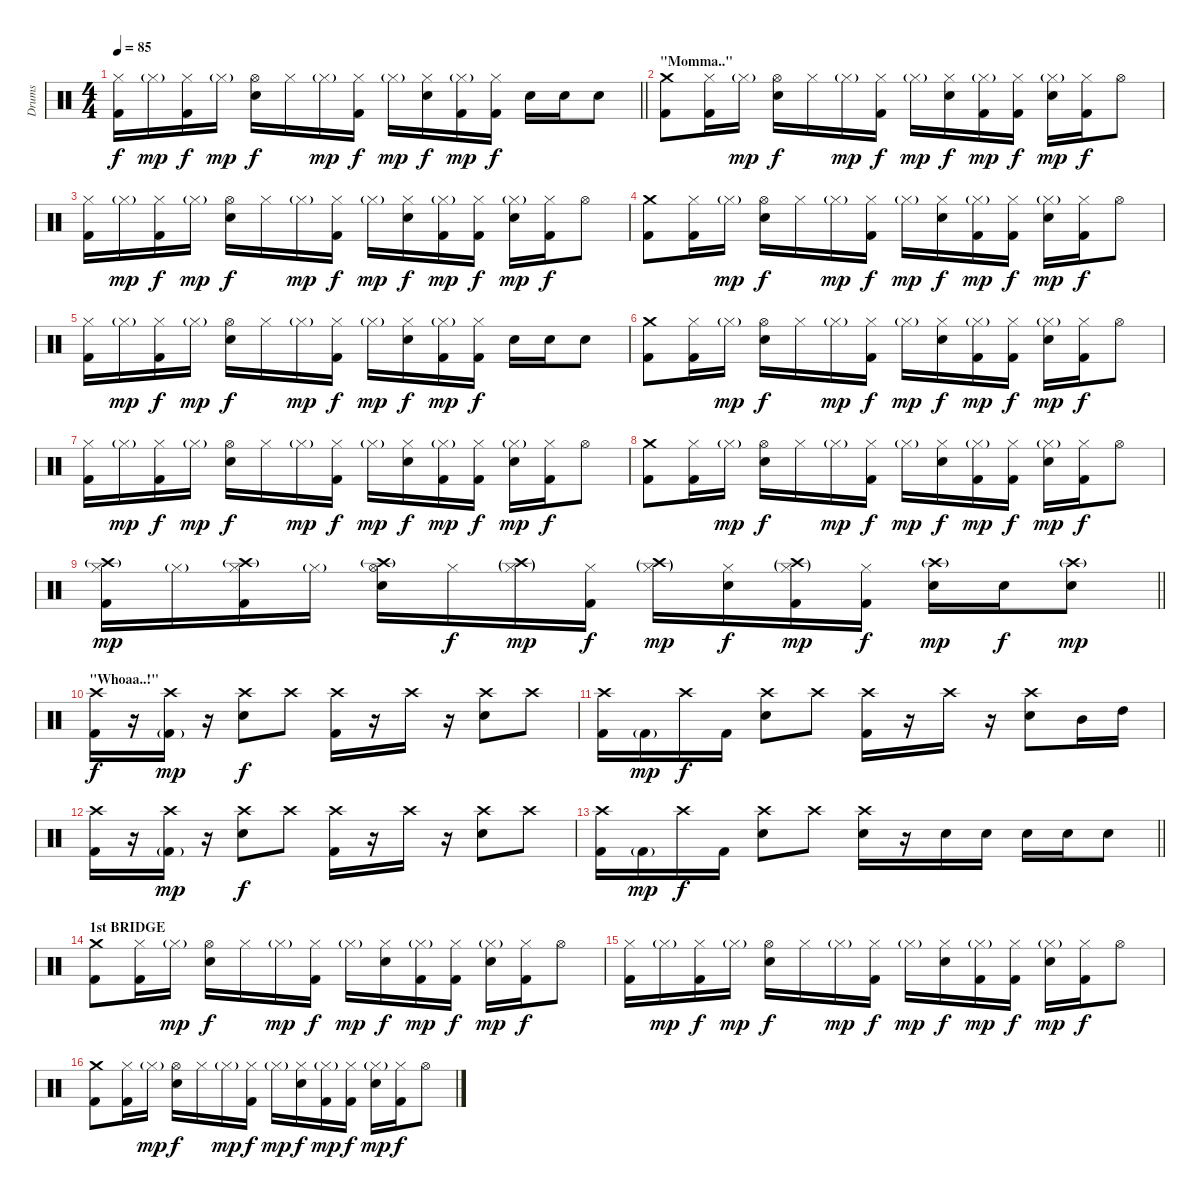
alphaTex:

\track ("Drums" "Drums") {instrument percussion}
\staff {score}
\articulation defaults
\ts (4 4)
\tempo 85
\clef neutral
\barLineRight lightlight
\ks c
("Hi-Hat (closed)" "Kick (hit) 2").16{dy f} "Hi-Hat (closed)"{g}.16{dy mp} ("Hi-Hat (closed)" "Kick (hit) 2").16{dy f} "Hi-Hat (closed)"{g}.16{dy mp} ("Hi-Hat (open)" "Electric Snare (hit)").16{dy f} "Hi-Hat (closed)".16 "Hi-Hat (closed)"{g}.16{dy mp} ("Hi-Hat (closed)" "Kick (hit) 2").16{dy f} "Hi-Hat (closed)"{g}.16{dy mp} ("Hi-Hat (closed)" "Electric Snare (hit)").16{dy f} ("Hi-Hat (closed)"{g} "Kick (hit) 2").16{dy mp} ("Hi-Hat (closed)" "Kick (hit) 2").16{dy f} "Electric Snare (hit)".16 "Electric Snare (hit)".16 "Electric Snare (hit)".8 |
\section ("" "\"Momma..\"")
("Crash medium (hit)" "Kick (hit) 2").8 ("Hi-Hat (closed)" "Kick (hit) 2").16 "Hi-Hat (closed)"{g}.16{dy mp} ("Hi-Hat (open)" "Electric Snare (hit)").16{dy f} "Hi-Hat (closed)".16 "Hi-Hat (closed)"{g}.16{dy mp} ("Hi-Hat (closed)" "Kick (hit) 2").16{dy f} "Hi-Hat (closed)"{g}.16{dy mp} ("Hi-Hat (closed)" "Electric Snare (hit)").16{dy f} ("Hi-Hat (closed)"{g} "Kick (hit) 2").16{dy mp} ("Hi-Hat (closed)" "Kick (hit) 2").16{dy f} ("Hi-Hat (closed)"{g} "Electric Snare (hit)").16{dy mp} ("Hi-Hat (closed)" "Kick (hit) 2").16{dy f} "Hi-Hat (open)".8 |
("Hi-Hat (closed)" "Kick (hit) 2").16 "Hi-Hat (closed)"{g}.16{dy mp} ("Hi-Hat (closed)" "Kick (hit) 2").16{dy f} "Hi-Hat (closed)"{g}.16{dy mp} ("Hi-Hat (open)" "Electric Snare (hit)").16{dy f} "Hi-Hat (closed)".16 "Hi-Hat (closed)"{g}.16{dy mp} ("Hi-Hat (closed)" "Kick (hit) 2").16{dy f} "Hi-Hat (closed)"{g}.16{dy mp} ("Hi-Hat (closed)" "Electric Snare (hit)").16{dy f} ("Hi-Hat (closed)"{g} "Kick (hit) 2").16{dy mp} ("Hi-Hat (closed)" "Kick (hit) 2").16{dy f} ("Hi-Hat (closed)"{g} "Electric Snare (hit)").16{dy mp} ("Hi-Hat (closed)" "Kick (hit) 2").16{dy f} "Hi-Hat (open)".8 |
("Crash medium (hit)" "Kick (hit) 2").8 ("Hi-Hat (closed)" "Kick (hit) 2").16 "Hi-Hat (closed)"{g}.16{dy mp} ("Hi-Hat (open)" "Electric Snare (hit)").16{dy f} "Hi-Hat (closed)".16 "Hi-Hat (closed)"{g}.16{dy mp} ("Hi-Hat (closed)" "Kick (hit) 2").16{dy f} "Hi-Hat (closed)"{g}.16{dy mp} ("Hi-Hat (closed)" "Electric Snare (hit)").16{dy f} ("Hi-Hat (closed)"{g} "Kick (hit) 2").16{dy mp} ("Hi-Hat (closed)" "Kick (hit) 2").16{dy f} ("Hi-Hat (closed)"{g} "Electric Snare (hit)").16{dy mp} ("Hi-Hat (closed)" "Kick (hit) 2").16{dy f} "Hi-Hat (open)".8 |
("Hi-Hat (closed)" "Kick (hit) 2").16 "Hi-Hat (closed)"{g}.16{dy mp} ("Hi-Hat (closed)" "Kick (hit) 2").16{dy f} "Hi-Hat (closed)"{g}.16{dy mp} ("Hi-Hat (open)" "Electric Snare (hit)").16{dy f} "Hi-Hat (closed)".16 "Hi-Hat (closed)"{g}.16{dy mp} ("Hi-Hat (closed)" "Kick (hit) 2").16{dy f} "Hi-Hat (closed)"{g}.16{dy mp} ("Hi-Hat (closed)" "Electric Snare (hit)").16{dy f} ("Hi-Hat (closed)"{g} "Kick (hit) 2").16{dy mp} ("Hi-Hat (closed)" "Kick (hit) 2").16{dy f} "Electric Snare (hit)".16 "Electric Snare (hit)".16 "Electric Snare (hit)".8 |
("Crash medium (hit)" "Kick (hit) 2").8 ("Hi-Hat (closed)" "Kick (hit) 2").16 "Hi-Hat (closed)"{g}.16{dy mp} ("Hi-Hat (open)" "Electric Snare (hit)").16{dy f} "Hi-Hat (closed)".16 "Hi-Hat (closed)"{g}.16{dy mp} ("Hi-Hat (closed)" "Kick (hit) 2").16{dy f} "Hi-Hat (closed)"{g}.16{dy mp} ("Hi-Hat (closed)" "Electric Snare (hit)").16{dy f} ("Hi-Hat (closed)"{g} "Kick (hit) 2").16{dy mp} ("Hi-Hat (closed)" "Kick (hit) 2").16{dy f} ("Hi-Hat (closed)"{g} "Electric Snare (hit)").16{dy mp} ("Hi-Hat (closed)" "Kick (hit) 2").16{dy f} "Hi-Hat (open)".8 |
("Hi-Hat (closed)" "Kick (hit) 2").16 "Hi-Hat (closed)"{g}.16{dy mp} ("Hi-Hat (closed)" "Kick (hit) 2").16{dy f} "Hi-Hat (closed)"{g}.16{dy mp} ("Hi-Hat (open)" "Electric Snare (hit)").16{dy f} "Hi-Hat (closed)".16 "Hi-Hat (closed)"{g}.16{dy mp} ("Hi-Hat (closed)" "Kick (hit) 2").16{dy f} "Hi-Hat (closed)"{g}.16{dy mp} ("Hi-Hat (closed)" "Electric Snare (hit)").16{dy f} ("Hi-Hat (closed)"{g} "Kick (hit) 2").16{dy mp} ("Hi-Hat (closed)" "Kick (hit) 2").16{dy f} ("Hi-Hat (closed)"{g} "Electric Snare (hit)").16{dy mp} ("Hi-Hat (closed)" "Kick (hit) 2").16{dy f} "Hi-Hat (open)".8 |
("Crash medium (hit)" "Kick (hit) 2").8 ("Hi-Hat (closed)" "Kick (hit) 2").16 "Hi-Hat (closed)"{g}.16{dy mp} ("Hi-Hat (open)" "Electric Snare (hit)").16{dy f} "Hi-Hat (closed)".16 "Hi-Hat (closed)"{g}.16{dy mp} ("Hi-Hat (closed)" "Kick (hit) 2").16{dy f} "Hi-Hat (closed)"{g}.16{dy mp} ("Hi-Hat (closed)" "Electric Snare (hit)").16{dy f} ("Hi-Hat (closed)"{g} "Kick (hit) 2").16{dy mp} ("Hi-Hat (closed)" "Kick (hit) 2").16{dy f} ("Hi-Hat (closed)"{g} "Electric Snare (hit)").16{dy mp} ("Hi-Hat (closed)" "Kick (hit) 2").16{dy f} "Hi-Hat (open)".8 |
\barLineRight lightlight
("Crash high (hit)"{g} "Hi-Hat (closed)" "Kick (hit) 2").16{dy mp} "Hi-Hat (closed)"{g}.16 ("Crash high (hit)"{g} "Hi-Hat (closed)" "Kick (hit) 2").16 "Hi-Hat (closed)"{g}.16 ("Crash high (hit)"{g} "Hi-Hat (open)" "Electric Snare (hit)").16 "Hi-Hat (closed)".16{dy f} ("Crash high (hit)"{g} "Hi-Hat (closed)"{g}).16{dy mp} ("Hi-Hat (closed)" "Kick (hit) 2").16{dy f} ("Crash high (hit)"{g} "Hi-Hat (closed)"{g}).16{dy mp} ("Hi-Hat (closed)" "Electric Snare (hit)").16{dy f} ("Crash high (hit)"{g} "Hi-Hat (closed)"{g} "Kick (hit) 2").16{dy mp} ("Hi-Hat (closed)" "Kick (hit) 2").16{dy f} ("Crash high (hit)"{g} "Electric Snare (hit)").16{dy mp} "Electric Snare (hit)".16{dy f} ("Crash high (hit)"{g} "Electric Snare (hit)").8{dy mp} |
\section ("" "\"Whoaa..!\"")
("Crash high (hit)" "Kick (hit) 2").16{dy f} r.16 ("Crash high (hit)" "Kick (hit) 2"{g}).16{dy mp} r.16 ("Crash high (hit)" "Electric Snare (hit)").8{dy f} "Crash high (hit)".8 ("Crash high (hit)" "Kick (hit) 2").16 r.16 "Crash high (hit)".16 r.16 ("Crash high (hit)" "Electric Snare (hit)").8 "Crash high (hit)".8 |
("Crash high (hit)" "Kick (hit) 2").16 "Kick (hit) 2"{g}.16{dy mp} "Crash high (hit)".16{dy f} "Kick (hit) 2".16 ("Crash high (hit)" "Electric Snare (hit)").8 "Crash high (hit)".8 ("Crash high (hit)" "Kick (hit) 2").16 r.16 "Crash high (hit)".16 r.16 ("Crash high (hit)" "Electric Snare (hit)").8 "Mid Tom (hit)".16 "High Tom (hit)".16 |
("Crash high (hit)" "Kick (hit) 2").16 r.16 ("Crash high (hit)" "Kick (hit) 2"{g}).16{dy mp} r.16 ("Crash high (hit)" "Electric Snare (hit)").8{dy f} "Crash high (hit)".8 ("Crash high (hit)" "Kick (hit) 2").16 r.16 "Crash high (hit)".16 r.16 ("Crash high (hit)" "Electric Snare (hit)").8 "Crash high (hit)".8 |
\barLineRight lightlight
("Crash high (hit)" "Kick (hit) 2").16 "Kick (hit) 2"{g}.16{dy mp} "Crash high (hit)".16{dy f} "Kick (hit) 2".16 ("Crash high (hit)" "Electric Snare (hit)").8 "Crash high (hit)".8 ("Crash high (hit)" "Electric Snare (hit)").16 r.16 "Electric Snare (hit)".16 "Electric Snare (hit)".16 "Electric Snare (hit)".16 "Electric Snare (hit)".16 "Electric Snare (hit)".8 |
\section ("" "1st BRIDGE")
("Crash medium (hit)" "Kick (hit) 2").8 ("Hi-Hat (closed)" "Kick (hit) 2").16 "Hi-Hat (closed)"{g}.16{dy mp} ("Hi-Hat (open)" "Electric Snare (hit)").16{dy f} "Hi-Hat (closed)".16 "Hi-Hat (closed)"{g}.16{dy mp} ("Hi-Hat (closed)" "Kick (hit) 2").16{dy f} "Hi-Hat (closed)"{g}.16{dy mp} ("Hi-Hat (closed)" "Electric Snare (hit)").16{dy f} ("Hi-Hat (closed)"{g} "Kick (hit) 2").16{dy mp} ("Hi-Hat (closed)" "Kick (hit) 2").16{dy f} ("Hi-Hat (closed)"{g} "Electric Snare (hit)").16{dy mp} ("Hi-Hat (closed)" "Kick (hit) 2").16{dy f} "Hi-Hat (open)".8 |
("Hi-Hat (closed)" "Kick (hit) 2").16 "Hi-Hat (closed)"{g}.16{dy mp} ("Hi-Hat (closed)" "Kick (hit) 2").16{dy f} "Hi-Hat (closed)"{g}.16{dy mp} ("Hi-Hat (open)" "Electric Snare (hit)").16{dy f} "Hi-Hat (closed)".16 "Hi-Hat (closed)"{g}.16{dy mp} ("Hi-Hat (closed)" "Kick (hit) 2").16{dy f} "Hi-Hat (closed)"{g}.16{dy mp} ("Hi-Hat (closed)" "Electric Snare (hit)").16{dy f} ("Hi-Hat (closed)"{g} "Kick (hit) 2").16{dy mp} ("Hi-Hat (closed)" "Kick (hit) 2").16{dy f} ("Hi-Hat (closed)"{g} "Electric Snare (hit)").16{dy mp} ("Hi-Hat (closed)" "Kick (hit) 2").16{dy f} "Hi-Hat (open)".8 |
("Crash medium (hit)" "Kick (hit) 2").8 ("Hi-Hat (closed)" "Kick (hit) 2").16 "Hi-Hat (closed)"{g}.16{dy mp} ("Hi-Hat (open)" "Electric Snare (hit)").16{dy f} "Hi-Hat (closed)".16 "Hi-Hat (closed)"{g}.16{dy mp} ("Hi-Hat (closed)" "Kick (hit) 2").16{dy f} "Hi-Hat (closed)"{g}.16{dy mp} ("Hi-Hat (closed)" "Electric Snare (hit)").16{dy f} ("Hi-Hat (closed)"{g} "Kick (hit) 2").16{dy mp} ("Hi-Hat (closed)" "Kick (hit) 2").16{dy f} ("Hi-Hat (closed)"{g} "Electric Snare (hit)").16{dy mp} ("Hi-Hat (closed)" "Kick (hit) 2").16{dy f} "Hi-Hat (open)".8
